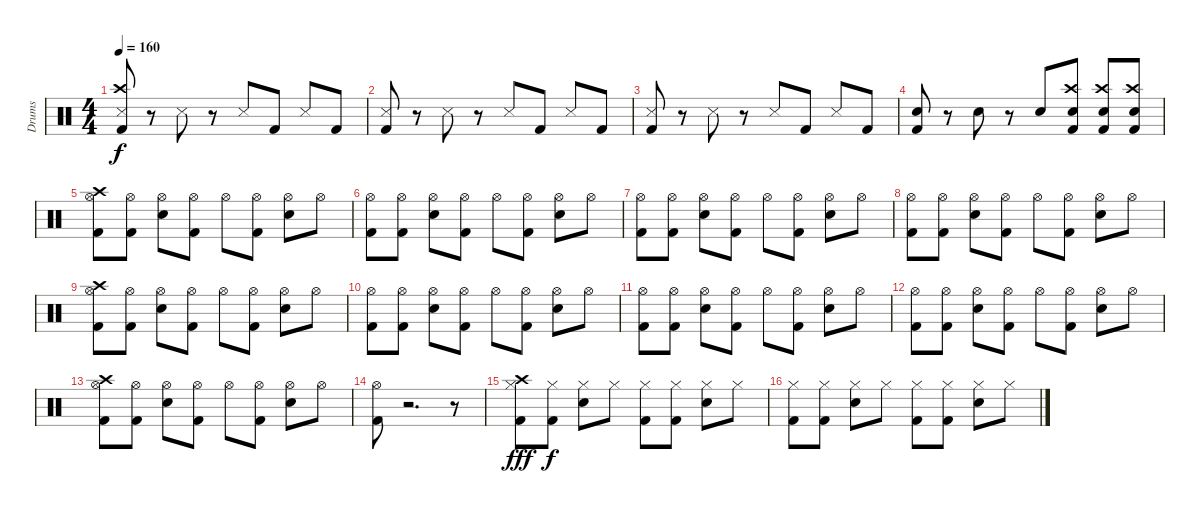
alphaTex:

\track ("Drums" "Drums") {instrument percussion}
\staff {score}
\articulation defaults
\ts (4 4)
\tempo 160
\clef neutral
\ks c
("Kick (hit) 2" "Crash high (hit)" "Metronome (hit)").8{dy f} r.8 "Metronome (hit)".8 r.8 "Metronome (hit)".8 "Kick (hit) 2".8 "Metronome (hit)".8 "Kick (hit) 2".8 |
("Kick (hit) 2" "Metronome (hit)").8 r.8 "Metronome (hit)".8 r.8 "Metronome (hit)".8 "Kick (hit) 2".8 "Metronome (hit)".8 "Kick (hit) 2".8 |
("Kick (hit) 2" "Metronome (hit)").8 r.8 "Metronome (hit)".8 r.8 "Metronome (hit)".8 "Kick (hit) 2".8 "Metronome (hit)".8 "Kick (hit) 2".8 |
("Kick (hit) 2" "Electric Snare (hit)").8 r.8 "Electric Snare (hit)".8 r.8 "Electric Snare (hit)".8 ("Kick (hit) 2" "Electric Snare (hit)" "Crash high (hit)").8 ("Kick (hit) 2" "Electric Snare (hit)" "Crash high (hit)").8 ("Kick (hit) 2" "Electric Snare (hit)" "Crash high (hit)").8 |
("Kick (hit) 2" "Crash high (hit)" "Hi-Hat (open)").8 ("Kick (hit) 2" "Hi-Hat (open)").8 ("Electric Snare (hit)" "Hi-Hat (open)").8 ("Kick (hit) 2" "Hi-Hat (open)").8 "Hi-Hat (open)".8 ("Kick (hit) 2" "Hi-Hat (open)").8 ("Electric Snare (hit)" "Hi-Hat (open)").8 "Hi-Hat (open)".8 |
("Kick (hit) 2" "Hi-Hat (open)").8 ("Kick (hit) 2" "Hi-Hat (open)").8 ("Electric Snare (hit)" "Hi-Hat (open)").8 ("Kick (hit) 2" "Hi-Hat (open)").8 "Hi-Hat (open)".8 ("Kick (hit) 2" "Hi-Hat (open)").8 ("Electric Snare (hit)" "Hi-Hat (open)").8 "Hi-Hat (open)".8 |
("Kick (hit) 2" "Hi-Hat (open)").8 ("Kick (hit) 2" "Hi-Hat (open)").8 ("Electric Snare (hit)" "Hi-Hat (open)").8 ("Kick (hit) 2" "Hi-Hat (open)").8 "Hi-Hat (open)".8 ("Kick (hit) 2" "Hi-Hat (open)").8 ("Electric Snare (hit)" "Hi-Hat (open)").8 "Hi-Hat (open)".8 |
("Kick (hit) 2" "Hi-Hat (open)").8 ("Kick (hit) 2" "Hi-Hat (open)").8 ("Electric Snare (hit)" "Hi-Hat (open)").8 ("Kick (hit) 2" "Hi-Hat (open)").8 "Hi-Hat (open)".8 ("Kick (hit) 2" "Hi-Hat (open)").8 ("Electric Snare (hit)" "Hi-Hat (open)").8 "Hi-Hat (open)".8 |
("Kick (hit) 2" "Crash high (hit)" "Hi-Hat (open)").8 ("Kick (hit) 2" "Hi-Hat (open)").8 ("Electric Snare (hit)" "Hi-Hat (open)").8 ("Kick (hit) 2" "Hi-Hat (open)").8 "Hi-Hat (open)".8 ("Kick (hit) 2" "Hi-Hat (open)").8 ("Electric Snare (hit)" "Hi-Hat (open)").8 "Hi-Hat (open)".8 |
("Kick (hit) 2" "Hi-Hat (open)").8 ("Kick (hit) 2" "Hi-Hat (open)").8 ("Electric Snare (hit)" "Hi-Hat (open)").8 ("Kick (hit) 2" "Hi-Hat (open)").8 "Hi-Hat (open)".8 ("Kick (hit) 2" "Hi-Hat (open)").8 ("Electric Snare (hit)" "Hi-Hat (open)").8 "Hi-Hat (open)".8 |
("Kick (hit) 2" "Hi-Hat (open)").8 ("Kick (hit) 2" "Hi-Hat (open)").8 ("Electric Snare (hit)" "Hi-Hat (open)").8 ("Kick (hit) 2" "Hi-Hat (open)").8 "Hi-Hat (open)".8 ("Kick (hit) 2" "Hi-Hat (open)").8 ("Electric Snare (hit)" "Hi-Hat (open)").8 "Hi-Hat (open)".8 |
("Kick (hit) 2" "Hi-Hat (open)").8 ("Kick (hit) 2" "Hi-Hat (open)").8 ("Electric Snare (hit)" "Hi-Hat (open)").8 ("Kick (hit) 2" "Hi-Hat (open)").8 "Hi-Hat (open)".8 ("Kick (hit) 2" "Hi-Hat (open)").8 ("Electric Snare (hit)" "Hi-Hat (open)").8 "Hi-Hat (open)".8 |
("Kick (hit) 2" "Crash high (hit)" "Hi-Hat (open)").8 ("Kick (hit) 2" "Hi-Hat (open)").8 ("Electric Snare (hit)" "Hi-Hat (open)").8 ("Kick (hit) 2" "Hi-Hat (open)").8 "Hi-Hat (open)".8 ("Kick (hit) 2" "Hi-Hat (open)").8 ("Electric Snare (hit)" "Hi-Hat (open)").8 "Hi-Hat (open)".8 |
("Kick (hit) 2" "Hi-Hat (open)").8 r.2{d} r.8 |
("Kick (hit) 2" "Crash high (hit)" "Hi-Hat (closed)").8{dy fff} ("Kick (hit) 2" "Hi-Hat (closed)").8{dy f} ("Electric Snare (hit)" "Hi-Hat (closed)").8 "Hi-Hat (closed)".8 ("Kick (hit) 2" "Hi-Hat (closed)").8 ("Kick (hit) 2" "Hi-Hat (closed)").8 ("Electric Snare (hit)" "Hi-Hat (closed)").8 "Hi-Hat (closed)".8 |
("Kick (hit) 2" "Hi-Hat (closed)").8 ("Kick (hit) 2" "Hi-Hat (closed)").8 ("Electric Snare (hit)" "Hi-Hat (closed)").8 "Hi-Hat (closed)".8 ("Kick (hit) 2" "Hi-Hat (closed)").8 ("Kick (hit) 2" "Hi-Hat (closed)").8 ("Electric Snare (hit)" "Hi-Hat (closed)").8 "Hi-Hat (closed)".8
